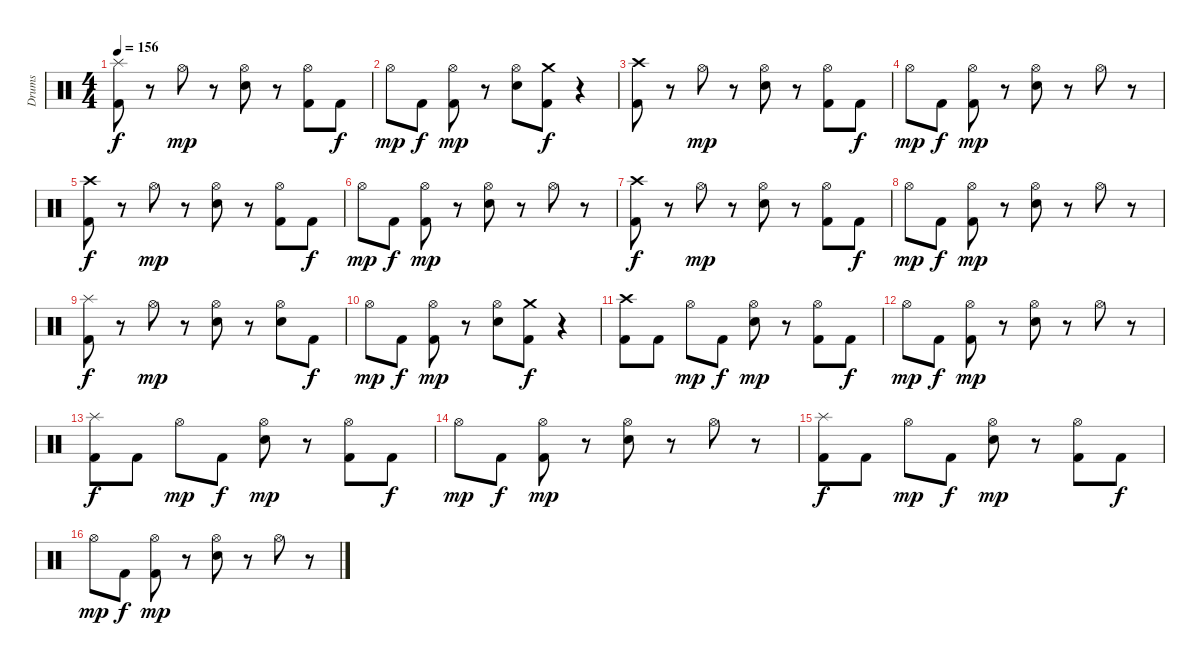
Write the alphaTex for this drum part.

\track ("Drums" "Drums") {instrument percussion}
\staff {score}
\articulation defaults
\ts (4 4)
\tempo 156
\clef neutral
\ks c
("Kick (hit) 2" "Splash (hit)").8{dy f} r.8 "Hi-Hat (open)".8{dy mp} r.8 ("Snare (hit) 2" "Hi-Hat (open)").8 r.8 ("Kick (hit) 2" "Hi-Hat (open)").8 "Kick (hit) 2".8{dy f} |
"Hi-Hat (open)".8{dy mp} "Kick (hit) 2".8{dy f} ("Kick (hit) 2" "Hi-Hat (open)").8{dy mp} r.8 ("Snare (hit) 2" "Hi-Hat (open)").8 ("Kick (hit) 2" "Crash medium (hit)").8{dy f} r.4 |
("Kick (hit) 2" "Crash high (hit)").8 r.8 "Hi-Hat (open)".8{dy mp} r.8 ("Snare (hit) 2" "Hi-Hat (open)").8 r.8 ("Kick (hit) 2" "Hi-Hat (open)").8 "Kick (hit) 2".8{dy f} |
"Hi-Hat (open)".8{dy mp} "Kick (hit) 2".8{dy f} ("Kick (hit) 2" "Hi-Hat (open)").8{dy mp} r.8 ("Snare (hit) 2" "Hi-Hat (open)").8 r.8 "Hi-Hat (open)".8 r.8 |
("Kick (hit) 2" "Crash high (hit)").8{dy f} r.8 "Hi-Hat (open)".8{dy mp} r.8 ("Snare (hit) 2" "Hi-Hat (open)").8 r.8 ("Kick (hit) 2" "Hi-Hat (open)").8 "Kick (hit) 2".8{dy f} |
"Hi-Hat (open)".8{dy mp} "Kick (hit) 2".8{dy f} ("Kick (hit) 2" "Hi-Hat (open)").8{dy mp} r.8 ("Snare (hit) 2" "Hi-Hat (open)").8 r.8 "Hi-Hat (open)".8 r.8 |
("Kick (hit) 2" "Crash high (hit)").8{dy f} r.8 "Hi-Hat (open)".8{dy mp} r.8 ("Snare (hit) 2" "Hi-Hat (open)").8 r.8 ("Kick (hit) 2" "Hi-Hat (open)").8 "Kick (hit) 2".8{dy f} |
"Hi-Hat (open)".8{dy mp} "Kick (hit) 2".8{dy f} ("Kick (hit) 2" "Hi-Hat (open)").8{dy mp} r.8 ("Snare (hit) 2" "Hi-Hat (open)").8 r.8 "Hi-Hat (open)".8 r.8 |
("Kick (hit) 2" "Splash (hit)").8{dy f} r.8 "Hi-Hat (open)".8{dy mp} r.8 ("Snare (hit) 2" "Hi-Hat (open)").8 r.8 ("Snare (hit) 2" "Hi-Hat (open)").8 "Kick (hit) 2".8{dy f} |
"Hi-Hat (open)".8{dy mp} "Kick (hit) 2".8{dy f} ("Kick (hit) 2" "Hi-Hat (open)").8{dy mp} r.8 ("Snare (hit) 2" "Hi-Hat (open)").8 ("Kick (hit) 2" "Crash medium (hit)").8{dy f} r.4 |
("Kick (hit) 2" "Crash high (hit)").8 "Kick (hit) 2".8 "Hi-Hat (open)".8{dy mp} "Kick (hit) 2".8{dy f} ("Snare (hit) 2" "Hi-Hat (open)").8{dy mp} r.8 ("Kick (hit) 2" "Hi-Hat (open)").8 "Kick (hit) 2".8{dy f} |
"Hi-Hat (open)".8{dy mp} "Kick (hit) 2".8{dy f} ("Kick (hit) 2" "Hi-Hat (open)").8{dy mp} r.8 ("Snare (hit) 2" "Hi-Hat (open)").8 r.8 "Hi-Hat (open)".8 r.8 |
("Kick (hit) 2" "Splash (hit)").8{dy f} "Kick (hit) 2".8 "Hi-Hat (open)".8{dy mp} "Kick (hit) 2".8{dy f} ("Snare (hit) 2" "Hi-Hat (open)").8{dy mp} r.8 ("Kick (hit) 2" "Hi-Hat (open)").8 "Kick (hit) 2".8{dy f} |
"Hi-Hat (open)".8{dy mp} "Kick (hit) 2".8{dy f} ("Kick (hit) 2" "Hi-Hat (open)").8{dy mp} r.8 ("Snare (hit) 2" "Hi-Hat (open)").8 r.8 "Hi-Hat (open)".8 r.8 |
("Kick (hit) 2" "Splash (hit)").8{dy f} "Kick (hit) 2".8 "Hi-Hat (open)".8{dy mp} "Kick (hit) 2".8{dy f} ("Snare (hit) 2" "Hi-Hat (open)").8{dy mp} r.8 ("Kick (hit) 2" "Hi-Hat (open)").8 "Kick (hit) 2".8{dy f} |
"Hi-Hat (open)".8{dy mp} "Kick (hit) 2".8{dy f} ("Kick (hit) 2" "Hi-Hat (open)").8{dy mp} r.8 ("Snare (hit) 2" "Hi-Hat (open)").8 r.8 "Hi-Hat (open)".8 r.8
